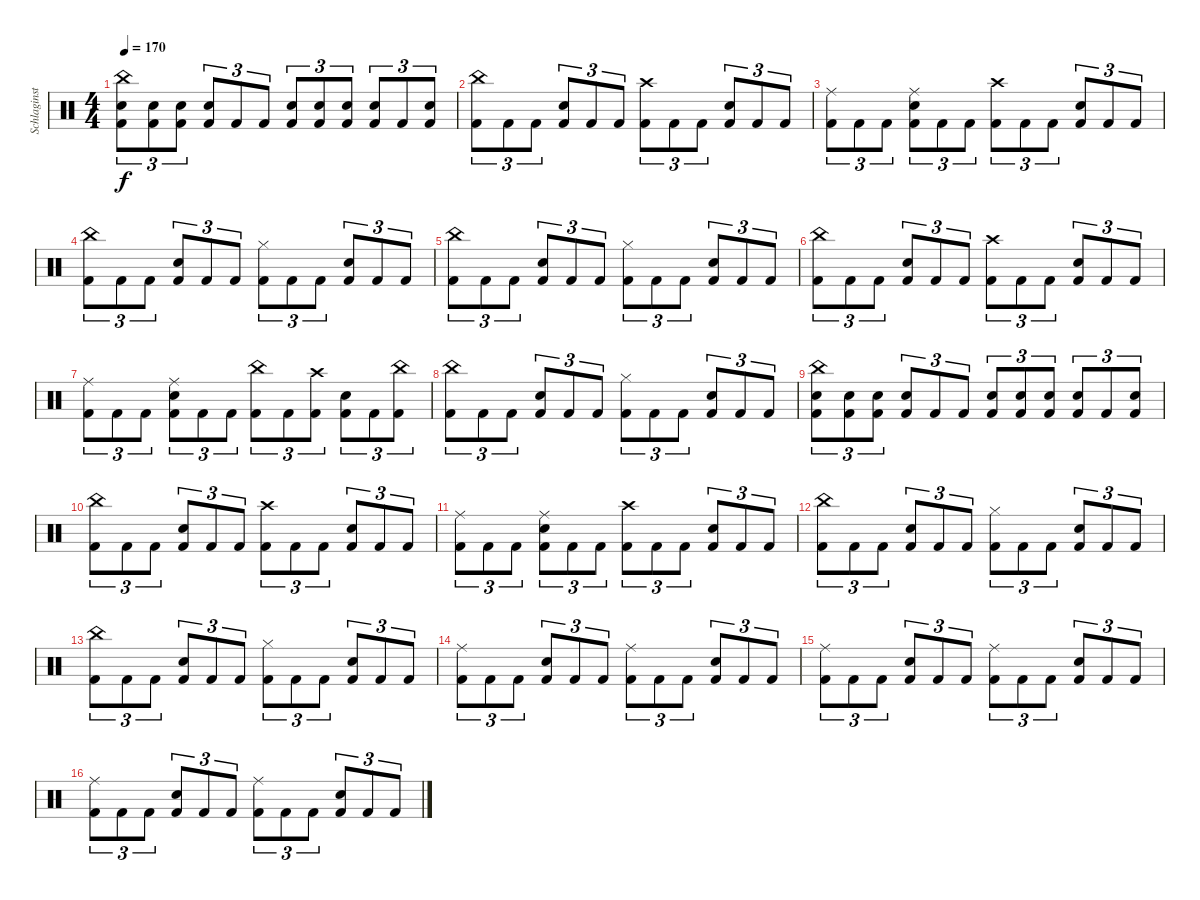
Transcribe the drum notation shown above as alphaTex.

\track ("Schlaginstrumente - Auswahl" "Schlaginst") {instrument percussion}
\staff {score}
\articulation defaults
\ts (4 4)
\tempo 170
\clef neutral
\ks c
("Kick (hit) 2" "Snare (hit) 2" "China (hit)").8{tu (3 2) dy f} ("Kick (hit) 2" "Snare (hit) 2").8{tu (3 2)} ("Kick (hit) 2" "Snare (hit) 2").8{tu (3 2)} ("Kick (hit) 2" "Snare (hit) 2").8{tu (3 2)} "Kick (hit) 2".8{tu (3 2)} "Kick (hit) 2".8{tu (3 2)} ("Kick (hit) 2" "Snare (hit) 2").8{tu (3 2)} ("Kick (hit) 2" "Snare (hit) 2").8{tu (3 2)} ("Kick (hit) 2" "Snare (hit) 2").8{tu (3 2)} ("Kick (hit) 2" "Snare (hit) 2").8{tu (3 2)} "Kick (hit) 2".8{tu (3 2)} ("Kick (hit) 2" "Snare (hit) 2").8{tu (3 2)} |
("Kick (hit) 2" "China (hit)").8{tu (3 2)} "Kick (hit) 2".8{tu (3 2)} "Kick (hit) 2".8{tu (3 2)} ("Kick (hit) 2" "Snare (hit) 2").8{tu (3 2)} "Kick (hit) 2".8{tu (3 2)} "Kick (hit) 2".8{tu (3 2)} ("Kick (hit) 2" "Crash high (hit)").8{tu (3 2)} "Kick (hit) 2".8{tu (3 2)} "Kick (hit) 2".8{tu (3 2)} ("Kick (hit) 2" "Snare (hit) 2").8{tu (3 2)} "Kick (hit) 2".8{tu (3 2)} "Kick (hit) 2".8{tu (3 2)} |
("Kick (hit) 2" "Ride (middle)").8{tu (3 2)} "Kick (hit) 2".8{tu (3 2)} "Kick (hit) 2".8{tu (3 2)} ("Kick (hit) 2" "Snare (hit) 2" "Ride (middle)").8{tu (3 2)} "Kick (hit) 2".8{tu (3 2)} "Kick (hit) 2".8{tu (3 2)} ("Kick (hit) 2" "Crash high (hit)").8{tu (3 2)} "Kick (hit) 2".8{tu (3 2)} "Kick (hit) 2".8{tu (3 2)} ("Kick (hit) 2" "Snare (hit) 2").8{tu (3 2)} "Kick (hit) 2".8{tu (3 2)} "Kick (hit) 2".8{tu (3 2)} |
("Kick (hit) 2" "China (hit)").8{tu (3 2)} "Kick (hit) 2".8{tu (3 2)} "Kick (hit) 2".8{tu (3 2)} ("Kick (hit) 2" "Snare (hit) 2").8{tu (3 2)} "Kick (hit) 2".8{tu (3 2)} "Kick (hit) 2".8{tu (3 2)} ("Kick (hit) 2" "Hi-Hat (closed)").8{tu (3 2)} "Kick (hit) 2".8{tu (3 2)} "Kick (hit) 2".8{tu (3 2)} ("Kick (hit) 2" "Snare (hit) 2").8{tu (3 2)} "Kick (hit) 2".8{tu (3 2)} "Kick (hit) 2".8{tu (3 2)} |
("Kick (hit) 2" "China (hit)").8{tu (3 2)} "Kick (hit) 2".8{tu (3 2)} "Kick (hit) 2".8{tu (3 2)} ("Kick (hit) 2" "Snare (hit) 2").8{tu (3 2)} "Kick (hit) 2".8{tu (3 2)} "Kick (hit) 2".8{tu (3 2)} ("Kick (hit) 2" "Hi-Hat (closed)").8{tu (3 2)} "Kick (hit) 2".8{tu (3 2)} "Kick (hit) 2".8{tu (3 2)} ("Kick (hit) 2" "Snare (hit) 2").8{tu (3 2)} "Kick (hit) 2".8{tu (3 2)} "Kick (hit) 2".8{tu (3 2)} |
("Kick (hit) 2" "China (hit)").8{tu (3 2)} "Kick (hit) 2".8{tu (3 2)} "Kick (hit) 2".8{tu (3 2)} ("Kick (hit) 2" "Snare (hit) 2").8{tu (3 2)} "Kick (hit) 2".8{tu (3 2)} "Kick (hit) 2".8{tu (3 2)} ("Kick (hit) 2" "Crash high (hit)").8{tu (3 2)} "Kick (hit) 2".8{tu (3 2)} "Kick (hit) 2".8{tu (3 2)} ("Kick (hit) 2" "Snare (hit) 2").8{tu (3 2)} "Kick (hit) 2".8{tu (3 2)} "Kick (hit) 2".8{tu (3 2)} |
("Kick (hit) 2" "Ride (middle)").8{tu (3 2)} "Kick (hit) 2".8{tu (3 2)} "Kick (hit) 2".8{tu (3 2)} ("Kick (hit) 2" "Ride (middle)" "Snare (hit) 2").8{tu (3 2)} "Kick (hit) 2".8{tu (3 2)} "Kick (hit) 2".8{tu (3 2)} ("Kick (hit) 2" "China (hit)").8{tu (3 2)} "Kick (hit) 2".8{tu (3 2)} ("Kick (hit) 2" "Crash high (hit)").8{tu (3 2)} ("Kick (hit) 2" "Snare (hit) 2").8{tu (3 2)} "Kick (hit) 2".8{tu (3 2)} ("Kick (hit) 2" "China (hit)").8{tu (3 2)} |
("Kick (hit) 2" "China (hit)").8{tu (3 2)} "Kick (hit) 2".8{tu (3 2)} "Kick (hit) 2".8{tu (3 2)} ("Kick (hit) 2" "Snare (hit) 2").8{tu (3 2)} "Kick (hit) 2".8{tu (3 2)} "Kick (hit) 2".8{tu (3 2)} ("Kick (hit) 2" "Hi-Hat (closed)").8{tu (3 2)} "Kick (hit) 2".8{tu (3 2)} "Kick (hit) 2".8{tu (3 2)} ("Kick (hit) 2" "Snare (hit) 2").8{tu (3 2)} "Kick (hit) 2".8{tu (3 2)} "Kick (hit) 2".8{tu (3 2)} |
("Kick (hit) 2" "Snare (hit) 2" "China (hit)").8{tu (3 2)} ("Kick (hit) 2" "Snare (hit) 2").8{tu (3 2)} ("Kick (hit) 2" "Snare (hit) 2").8{tu (3 2)} ("Kick (hit) 2" "Snare (hit) 2").8{tu (3 2)} "Kick (hit) 2".8{tu (3 2)} "Kick (hit) 2".8{tu (3 2)} ("Kick (hit) 2" "Snare (hit) 2").8{tu (3 2)} ("Kick (hit) 2" "Snare (hit) 2").8{tu (3 2)} ("Kick (hit) 2" "Snare (hit) 2").8{tu (3 2)} ("Kick (hit) 2" "Snare (hit) 2").8{tu (3 2)} "Kick (hit) 2".8{tu (3 2)} ("Kick (hit) 2" "Snare (hit) 2").8{tu (3 2)} |
("Kick (hit) 2" "China (hit)").8{tu (3 2)} "Kick (hit) 2".8{tu (3 2)} "Kick (hit) 2".8{tu (3 2)} ("Kick (hit) 2" "Snare (hit) 2").8{tu (3 2)} "Kick (hit) 2".8{tu (3 2)} "Kick (hit) 2".8{tu (3 2)} ("Kick (hit) 2" "Crash high (hit)").8{tu (3 2)} "Kick (hit) 2".8{tu (3 2)} "Kick (hit) 2".8{tu (3 2)} ("Kick (hit) 2" "Snare (hit) 2").8{tu (3 2)} "Kick (hit) 2".8{tu (3 2)} "Kick (hit) 2".8{tu (3 2)} |
("Kick (hit) 2" "Ride (middle)").8{tu (3 2)} "Kick (hit) 2".8{tu (3 2)} "Kick (hit) 2".8{tu (3 2)} ("Kick (hit) 2" "Snare (hit) 2" "Ride (middle)").8{tu (3 2)} "Kick (hit) 2".8{tu (3 2)} "Kick (hit) 2".8{tu (3 2)} ("Kick (hit) 2" "Crash high (hit)").8{tu (3 2)} "Kick (hit) 2".8{tu (3 2)} "Kick (hit) 2".8{tu (3 2)} ("Kick (hit) 2" "Snare (hit) 2").8{tu (3 2)} "Kick (hit) 2".8{tu (3 2)} "Kick (hit) 2".8{tu (3 2)} |
("Kick (hit) 2" "China (hit)").8{tu (3 2)} "Kick (hit) 2".8{tu (3 2)} "Kick (hit) 2".8{tu (3 2)} ("Kick (hit) 2" "Snare (hit) 2").8{tu (3 2)} "Kick (hit) 2".8{tu (3 2)} "Kick (hit) 2".8{tu (3 2)} ("Kick (hit) 2" "Hi-Hat (closed)").8{tu (3 2)} "Kick (hit) 2".8{tu (3 2)} "Kick (hit) 2".8{tu (3 2)} ("Kick (hit) 2" "Snare (hit) 2").8{tu (3 2)} "Kick (hit) 2".8{tu (3 2)} "Kick (hit) 2".8{tu (3 2)} |
("Kick (hit) 2" "China (hit)").8{tu (3 2)} "Kick (hit) 2".8{tu (3 2)} "Kick (hit) 2".8{tu (3 2)} ("Kick (hit) 2" "Snare (hit) 2").8{tu (3 2)} "Kick (hit) 2".8{tu (3 2)} "Kick (hit) 2".8{tu (3 2)} ("Kick (hit) 2" "Hi-Hat (closed)").8{tu (3 2)} "Kick (hit) 2".8{tu (3 2)} "Kick (hit) 2".8{tu (3 2)} ("Kick (hit) 2" "Snare (hit) 2").8{tu (3 2)} "Kick (hit) 2".8{tu (3 2)} "Kick (hit) 2".8{tu (3 2)} |
("Kick (hit) 2" "Ride (middle)").8{tu (3 2)} "Kick (hit) 2".8{tu (3 2)} "Kick (hit) 2".8{tu (3 2)} ("Kick (hit) 2" "Snare (hit) 2").8{tu (3 2)} "Kick (hit) 2".8{tu (3 2)} "Kick (hit) 2".8{tu (3 2)} ("Kick (hit) 2" "Ride (middle)").8{tu (3 2)} "Kick (hit) 2".8{tu (3 2)} "Kick (hit) 2".8{tu (3 2)} ("Kick (hit) 2" "Snare (hit) 2").8{tu (3 2)} "Kick (hit) 2".8{tu (3 2)} "Kick (hit) 2".8{tu (3 2)} |
("Kick (hit) 2" "Ride (middle)").8{tu (3 2)} "Kick (hit) 2".8{tu (3 2)} "Kick (hit) 2".8{tu (3 2)} ("Kick (hit) 2" "Snare (hit) 2").8{tu (3 2)} "Kick (hit) 2".8{tu (3 2)} "Kick (hit) 2".8{tu (3 2)} ("Kick (hit) 2" "Ride (middle)").8{tu (3 2)} "Kick (hit) 2".8{tu (3 2)} "Kick (hit) 2".8{tu (3 2)} ("Kick (hit) 2" "Snare (hit) 2").8{tu (3 2)} "Kick (hit) 2".8{tu (3 2)} "Kick (hit) 2".8{tu (3 2)} |
("Kick (hit) 2" "Ride (middle)").8{tu (3 2)} "Kick (hit) 2".8{tu (3 2)} "Kick (hit) 2".8{tu (3 2)} ("Kick (hit) 2" "Snare (hit) 2").8{tu (3 2)} "Kick (hit) 2".8{tu (3 2)} "Kick (hit) 2".8{tu (3 2)} ("Kick (hit) 2" "Ride (middle)").8{tu (3 2)} "Kick (hit) 2".8{tu (3 2)} "Kick (hit) 2".8{tu (3 2)} ("Kick (hit) 2" "Snare (hit) 2").8{tu (3 2)} "Kick (hit) 2".8{tu (3 2)} "Kick (hit) 2".8{tu (3 2)}
